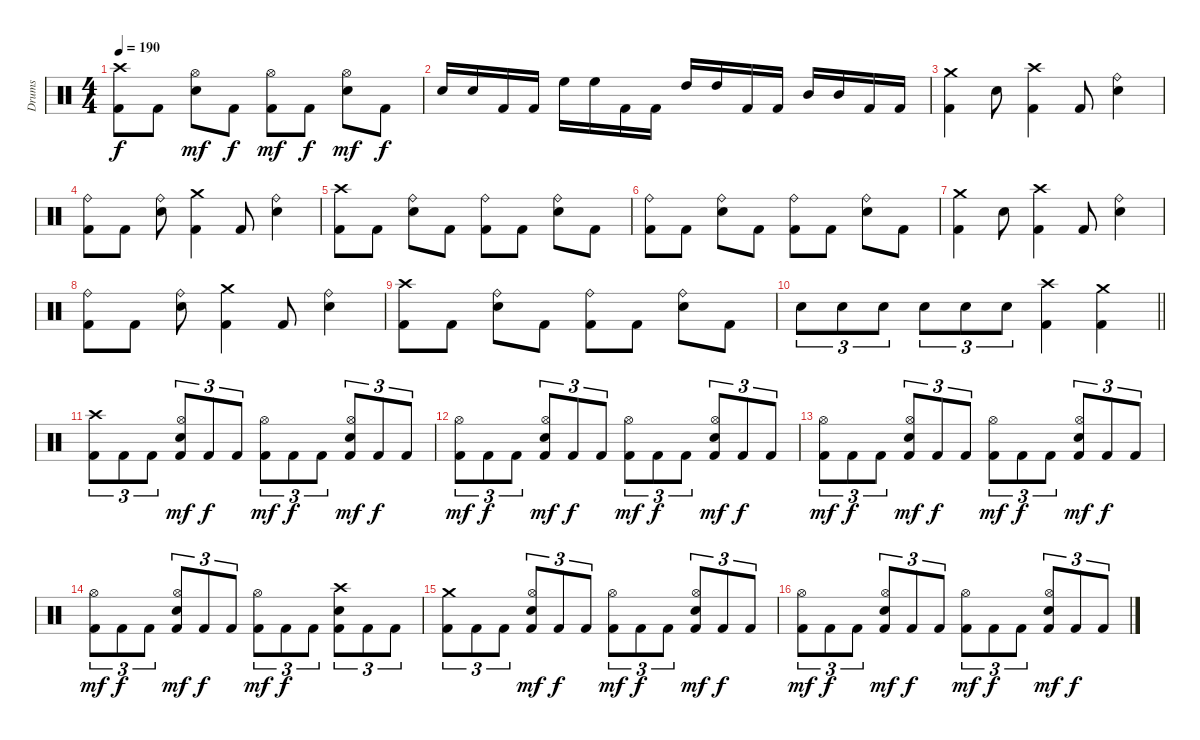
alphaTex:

\track ("Drums" "Drums") {instrument percussion}
\staff {score}
\articulation defaults
\ts (4 4)
\tempo 190
\clef neutral
\ks c
("Crash high (hit)" "Kick (hit) 2").8{dy f} "Kick (hit) 2".8 ("Hi-Hat (open)" "Electric Snare (hit)").8{dy mf} "Kick (hit) 2".8{dy f} ("Hi-Hat (open)" "Kick (hit) 2").8{dy mf} "Kick (hit) 2".8{dy f} ("Hi-Hat (open)" "Electric Snare (hit)").8{dy mf} "Kick (hit) 2".8{dy f} |
"Electric Snare (hit)".16 "Electric Snare (hit)".16 "Kick (hit) 2".16 "Kick (hit) 2".16 "High Floor Tom (hit)".16 "High Floor Tom (hit)".16 "Kick (hit) 2".16 "Kick (hit) 2".16 "High Tom (hit)".16 "High Tom (hit)".16 "Kick (hit) 2".16 "Kick (hit) 2".16 "Mid Tom (hit)".16 "Mid Tom (hit)".16 "Kick (hit) 2".16 "Kick (hit) 2".16 |
("Crash medium (hit)" "Kick (hit) 2").4 "Electric Snare (hit)".8 ("Crash high (hit)" "Kick (hit) 2").4 "Kick (hit) 2".8 ("Ride (bell)" "Electric Snare (hit)").4 |
("Ride (bell)" "Kick (hit) 2").8 "Kick (hit) 2".8 ("Ride (bell)" "Electric Snare (hit)").8 ("Crash medium (hit)" "Kick (hit) 2").4 "Kick (hit) 2".8 ("Ride (bell)" "Electric Snare (hit)").4 |
("Crash high (hit)" "Kick (hit) 2").8 "Kick (hit) 2".8 ("Ride (bell)" "Electric Snare (hit)").8 "Kick (hit) 2".8 ("Ride (bell)" "Kick (hit) 2").8 "Kick (hit) 2".8 ("Ride (bell)" "Electric Snare (hit)").8 "Kick (hit) 2".8 |
("Ride (bell)" "Kick (hit) 2").8 "Kick (hit) 2".8 ("Ride (bell)" "Electric Snare (hit)").8 "Kick (hit) 2".8 ("Ride (bell)" "Kick (hit) 2").8 "Kick (hit) 2".8 ("Ride (bell)" "Electric Snare (hit)").8 "Kick (hit) 2".8 |
("Crash medium (hit)" "Kick (hit) 2").4 "Electric Snare (hit)".8 ("Crash high (hit)" "Kick (hit) 2").4 "Kick (hit) 2".8 ("Ride (bell)" "Electric Snare (hit)").4 |
("Ride (bell)" "Kick (hit) 2").8 "Kick (hit) 2".8 ("Ride (bell)" "Electric Snare (hit)").8 ("Crash medium (hit)" "Kick (hit) 2").4 "Kick (hit) 2".8 ("Ride (bell)" "Electric Snare (hit)").4 |
("Crash high (hit)" "Kick (hit) 2").8 "Kick (hit) 2".8 ("Ride (bell)" "Electric Snare (hit)").8 "Kick (hit) 2".8 ("Ride (bell)" "Kick (hit) 2").8 "Kick (hit) 2".8 ("Ride (bell)" "Electric Snare (hit)").8 "Kick (hit) 2".8 |
\barLineRight lightlight "Electric Snare (hit)".8{tu (3 2)} "Electric Snare (hit)".8{tu (3 2)} "Electric Snare (hit)".8{tu (3 2)} "Electric Snare (hit)".8{tu (3 2)} "Electric Snare (hit)".8{tu (3 2)} "Electric Snare (hit)".8{tu (3 2)}
("Crash high (hit)" "Kick (hit) 2").4 ("Crash medium (hit)" "Kick (hit) 2").4 |
("Crash high (hit)" "Kick (hit) 2").8{tu (3 2)} "Kick (hit) 2".8{tu (3 2)} "Kick (hit) 2".8{tu (3 2)} ("Hi-Hat (open)" "Electric Snare (hit)" "Kick (hit) 2").8{tu (3 2) dy mf} "Kick (hit) 2".8{tu (3 2) dy f} "Kick (hit) 2".8{tu (3 2)} ("Hi-Hat (open)" "Kick (hit) 2").8{tu (3 2) dy mf} "Kick (hit) 2".8{tu (3 2) dy f} "Kick (hit) 2".8{tu (3 2)} ("Hi-Hat (open)" "Electric Snare (hit)" "Kick (hit) 2").8{tu (3 2) dy mf} "Kick (hit) 2".8{tu (3 2) dy f} "Kick (hit) 2".8{tu (3 2)} |
("Hi-Hat (open)" "Kick (hit) 2").8{tu (3 2) dy mf} "Kick (hit) 2".8{tu (3 2) dy f} "Kick (hit) 2".8{tu (3 2)} ("Hi-Hat (open)" "Electric Snare (hit)" "Kick (hit) 2").8{tu (3 2) dy mf} "Kick (hit) 2".8{tu (3 2) dy f} "Kick (hit) 2".8{tu (3 2)} ("Hi-Hat (open)" "Kick (hit) 2").8{tu (3 2) dy mf} "Kick (hit) 2".8{tu (3 2) dy f} "Kick (hit) 2".8{tu (3 2)} ("Hi-Hat (open)" "Electric Snare (hit)" "Kick (hit) 2").8{tu (3 2) dy mf} "Kick (hit) 2".8{tu (3 2) dy f} "Kick (hit) 2".8{tu (3 2)} |
("Hi-Hat (open)" "Kick (hit) 2").8{tu (3 2) dy mf} "Kick (hit) 2".8{tu (3 2) dy f} "Kick (hit) 2".8{tu (3 2)} ("Hi-Hat (open)" "Electric Snare (hit)" "Kick (hit) 2").8{tu (3 2) dy mf} "Kick (hit) 2".8{tu (3 2) dy f} "Kick (hit) 2".8{tu (3 2)} ("Hi-Hat (open)" "Kick (hit) 2").8{tu (3 2) dy mf} "Kick (hit) 2".8{tu (3 2) dy f} "Kick (hit) 2".8{tu (3 2)} ("Hi-Hat (open)" "Electric Snare (hit)" "Kick (hit) 2").8{tu (3 2) dy mf} "Kick (hit) 2".8{tu (3 2) dy f} "Kick (hit) 2".8{tu (3 2)} |
("Hi-Hat (open)" "Kick (hit) 2").8{tu (3 2) dy mf} "Kick (hit) 2".8{tu (3 2) dy f} "Kick (hit) 2".8{tu (3 2)} ("Hi-Hat (open)" "Electric Snare (hit)" "Kick (hit) 2").8{tu (3 2) dy mf} "Kick (hit) 2".8{tu (3 2) dy f} "Kick (hit) 2".8{tu (3 2)} ("Hi-Hat (open)" "Kick (hit) 2").8{tu (3 2) dy mf} "Kick (hit) 2".8{tu (3 2) dy f} "Kick (hit) 2".8{tu (3 2)} ("Crash high (hit)" "Electric Snare (hit)" "Kick (hit) 2").8{tu (3 2)} "Kick (hit) 2".8{tu (3 2)} "Kick (hit) 2".8{tu (3 2)} |
("Crash medium (hit)" "Kick (hit) 2").8{tu (3 2)} "Kick (hit) 2".8{tu (3 2)} "Kick (hit) 2".8{tu (3 2)} ("Hi-Hat (open)" "Electric Snare (hit)" "Kick (hit) 2").8{tu (3 2) dy mf} "Kick (hit) 2".8{tu (3 2) dy f} "Kick (hit) 2".8{tu (3 2)} ("Hi-Hat (open)" "Kick (hit) 2").8{tu (3 2) dy mf} "Kick (hit) 2".8{tu (3 2) dy f} "Kick (hit) 2".8{tu (3 2)} ("Hi-Hat (open)" "Electric Snare (hit)" "Kick (hit) 2").8{tu (3 2) dy mf} "Kick (hit) 2".8{tu (3 2) dy f} "Kick (hit) 2".8{tu (3 2)} |
("Hi-Hat (open)" "Kick (hit) 2").8{tu (3 2) dy mf} "Kick (hit) 2".8{tu (3 2) dy f} "Kick (hit) 2".8{tu (3 2)} ("Hi-Hat (open)" "Electric Snare (hit)" "Kick (hit) 2").8{tu (3 2) dy mf} "Kick (hit) 2".8{tu (3 2) dy f} "Kick (hit) 2".8{tu (3 2)} ("Hi-Hat (open)" "Kick (hit) 2").8{tu (3 2) dy mf} "Kick (hit) 2".8{tu (3 2) dy f} "Kick (hit) 2".8{tu (3 2)} ("Hi-Hat (open)" "Electric Snare (hit)" "Kick (hit) 2").8{tu (3 2) dy mf} "Kick (hit) 2".8{tu (3 2) dy f} "Kick (hit) 2".8{tu (3 2)}
